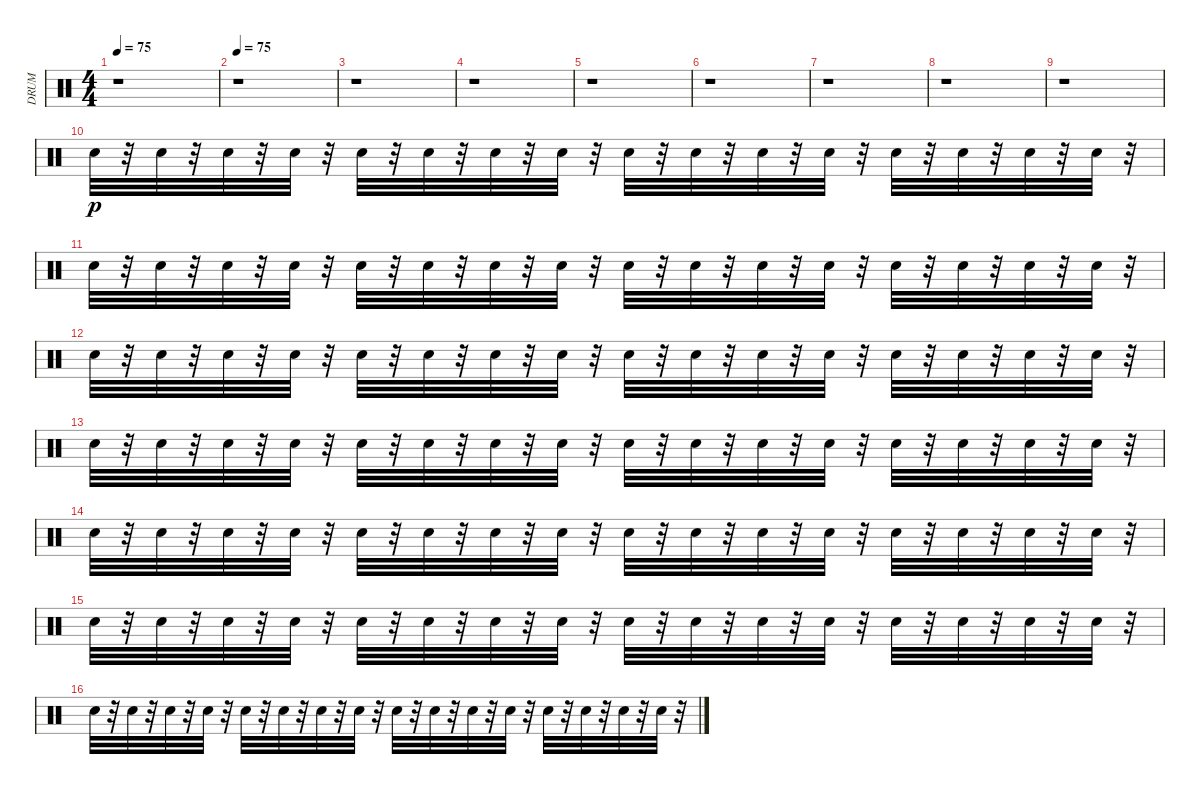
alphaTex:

\track ("DRUM" "DRUM") {instrument percussion}
\staff {score}
\articulation defaults
\ts (4 4)
\tempo 75
\clef neutral
\ks c
r.1{dy p} |
\tempo 75
r.1 |
r.1 |
r.1 |
r.1 |
r.1 |
r.1 |
r.1 |
r.1 |
"Snare (hit)".32{volume 6} r.32 "Snare (hit)".32 r.32 "Snare (hit)".32 r.32 "Snare (hit)".32 r.32 "Snare (hit)".32 r.32 "Snare (hit)".32 r.32 "Snare (hit)".32 r.32 "Snare (hit)".32 r.32 "Snare (hit)".32 r.32 "Snare (hit)".32 r.32 "Snare (hit)".32 r.32 "Snare (hit)".32 r.32 "Snare (hit)".32 r.32 "Snare (hit)".32 r.32 "Snare (hit)".32 r.32 "Snare (hit)".32 r.32 |
"Snare (hit)".32 r.32 "Snare (hit)".32 r.32 "Snare (hit)".32 r.32 "Snare (hit)".32 r.32 "Snare (hit)".32 r.32 "Snare (hit)".32 r.32 "Snare (hit)".32 r.32 "Snare (hit)".32 r.32 "Snare (hit)".32 r.32 "Snare (hit)".32 r.32 "Snare (hit)".32 r.32 "Snare (hit)".32 r.32 "Snare (hit)".32 r.32 "Snare (hit)".32 r.32 "Snare (hit)".32 r.32 "Snare (hit)".32 r.32 |
"Snare (hit)".32 r.32 "Snare (hit)".32 r.32 "Snare (hit)".32 r.32 "Snare (hit)".32 r.32 "Snare (hit)".32 r.32 "Snare (hit)".32 r.32 "Snare (hit)".32 r.32 "Snare (hit)".32 r.32 "Snare (hit)".32 r.32 "Snare (hit)".32 r.32 "Snare (hit)".32 r.32 "Snare (hit)".32 r.32 "Snare (hit)".32 r.32 "Snare (hit)".32 r.32 "Snare (hit)".32 r.32 "Snare (hit)".32 r.32 |
"Snare (hit)".32 r.32 "Snare (hit)".32 r.32 "Snare (hit)".32 r.32 "Snare (hit)".32 r.32 "Snare (hit)".32 r.32 "Snare (hit)".32 r.32 "Snare (hit)".32 r.32 "Snare (hit)".32 r.32 "Snare (hit)".32 r.32 "Snare (hit)".32 r.32 "Snare (hit)".32 r.32 "Snare (hit)".32 r.32 "Snare (hit)".32 r.32 "Snare (hit)".32 r.32 "Snare (hit)".32 r.32 "Snare (hit)".32 r.32 |
"Snare (hit)".32 r.32 "Snare (hit)".32 r.32 "Snare (hit)".32 r.32 "Snare (hit)".32 r.32 "Snare (hit)".32 r.32 "Snare (hit)".32 r.32 "Snare (hit)".32 r.32 "Snare (hit)".32 r.32 "Snare (hit)".32 r.32 "Snare (hit)".32 r.32 "Snare (hit)".32 r.32 "Snare (hit)".32 r.32 "Snare (hit)".32 r.32 "Snare (hit)".32 r.32 "Snare (hit)".32 r.32 "Snare (hit)".32 r.32 |
"Snare (hit)".32 r.32 "Snare (hit)".32 r.32 "Snare (hit)".32 r.32 "Snare (hit)".32 r.32 "Snare (hit)".32 r.32 "Snare (hit)".32 r.32 "Snare (hit)".32 r.32 "Snare (hit)".32 r.32 "Snare (hit)".32 r.32 "Snare (hit)".32 r.32 "Snare (hit)".32 r.32 "Snare (hit)".32 r.32 "Snare (hit)".32 r.32 "Snare (hit)".32 r.32 "Snare (hit)".32 r.32 "Snare (hit)".32 r.32 |
"Snare (hit)".32 r.32 "Snare (hit)".32 r.32 "Snare (hit)".32 r.32 "Snare (hit)".32 r.32 "Snare (hit)".32 r.32 "Snare (hit)".32 r.32 "Snare (hit)".32 r.32 "Snare (hit)".32 r.32 "Snare (hit)".32 r.32 "Snare (hit)".32 r.32 "Snare (hit)".32 r.32 "Snare (hit)".32 r.32 "Snare (hit)".32 r.32 "Snare (hit)".32 r.32 "Snare (hit)".32 r.32 "Snare (hit)".32 r.32
